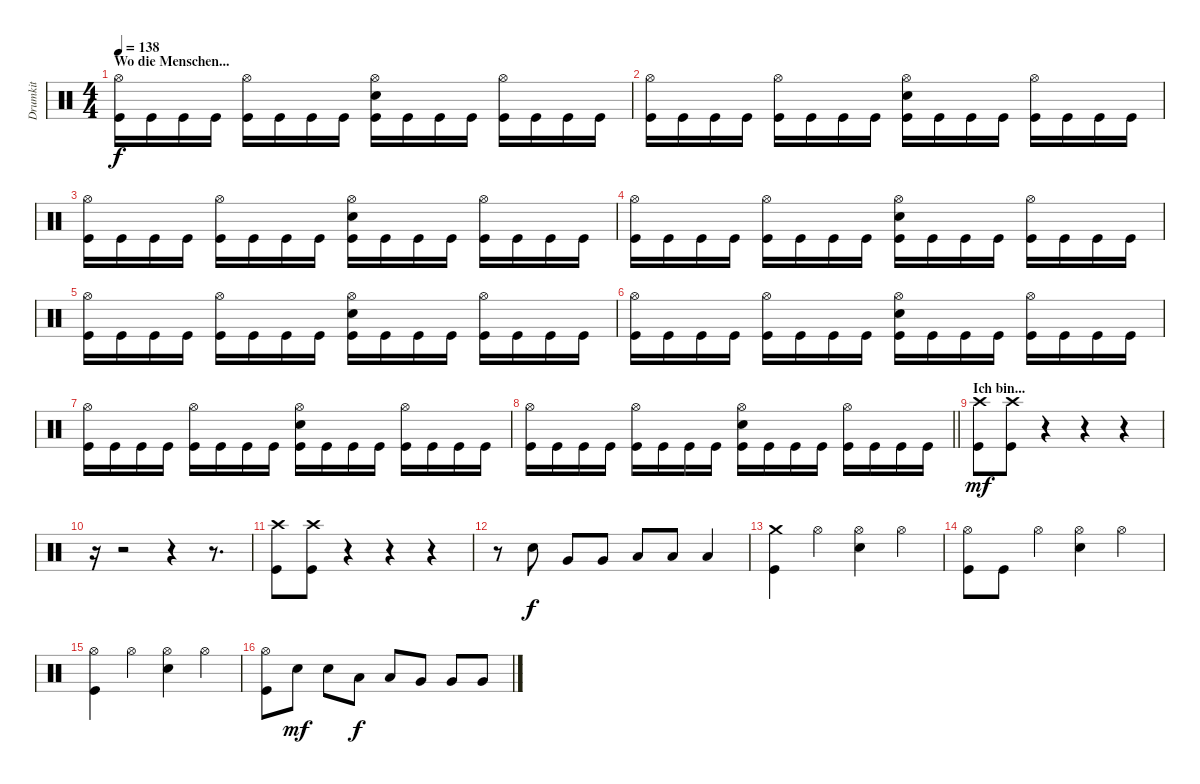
\track ("Drumkit" "Drumkit") {instrument percussion}
\staff {score}
\articulation defaults
\ts (4 4)
\section ("" "Wo die Menschen...")
\tempo 138
\clef neutral
\ks c
("Hi-Hat (open)" "Kick (hit)").16{dy f} "Kick (hit)".16 "Kick (hit)".16 "Kick (hit)".16 ("Hi-Hat (open)" "Kick (hit)").16 "Kick (hit)".16 "Kick (hit)".16 "Kick (hit)".16 ("Hi-Hat (open)" "Snare (hit) 2" "Kick (hit)").16 "Kick (hit)".16 "Kick (hit)".16 "Kick (hit)".16 ("Hi-Hat (open)" "Kick (hit)").16 "Kick (hit)".16 "Kick (hit)".16 "Kick (hit)".16 |
("Hi-Hat (open)" "Kick (hit)").16 "Kick (hit)".16 "Kick (hit)".16 "Kick (hit)".16 ("Hi-Hat (open)" "Kick (hit)").16 "Kick (hit)".16 "Kick (hit)".16 "Kick (hit)".16 ("Hi-Hat (open)" "Snare (hit) 2" "Kick (hit)").16 "Kick (hit)".16 "Kick (hit)".16 "Kick (hit)".16 ("Hi-Hat (open)" "Kick (hit)").16 "Kick (hit)".16 "Kick (hit)".16 "Kick (hit)".16 |
("Hi-Hat (open)" "Kick (hit)").16 "Kick (hit)".16 "Kick (hit)".16 "Kick (hit)".16 ("Hi-Hat (open)" "Kick (hit)").16 "Kick (hit)".16 "Kick (hit)".16 "Kick (hit)".16 ("Hi-Hat (open)" "Snare (hit) 2" "Kick (hit)").16 "Kick (hit)".16 "Kick (hit)".16 "Kick (hit)".16 ("Hi-Hat (open)" "Kick (hit)").16 "Kick (hit)".16 "Kick (hit)".16 "Kick (hit)".16 |
("Hi-Hat (open)" "Kick (hit)").16 "Kick (hit)".16 "Kick (hit)".16 "Kick (hit)".16 ("Hi-Hat (open)" "Kick (hit)").16 "Kick (hit)".16 "Kick (hit)".16 "Kick (hit)".16 ("Hi-Hat (open)" "Snare (hit) 2" "Kick (hit)").16 "Kick (hit)".16 "Kick (hit)".16 "Kick (hit)".16 ("Hi-Hat (open)" "Kick (hit)").16 "Kick (hit)".16 "Kick (hit)".16 "Kick (hit)".16 |
("Hi-Hat (open)" "Kick (hit)").16 "Kick (hit)".16 "Kick (hit)".16 "Kick (hit)".16 ("Hi-Hat (open)" "Kick (hit)").16 "Kick (hit)".16 "Kick (hit)".16 "Kick (hit)".16 ("Hi-Hat (open)" "Snare (hit) 2" "Kick (hit)").16 "Kick (hit)".16 "Kick (hit)".16 "Kick (hit)".16 ("Hi-Hat (open)" "Kick (hit)").16 "Kick (hit)".16 "Kick (hit)".16 "Kick (hit)".16 |
("Hi-Hat (open)" "Kick (hit)").16 "Kick (hit)".16 "Kick (hit)".16 "Kick (hit)".16 ("Hi-Hat (open)" "Kick (hit)").16 "Kick (hit)".16 "Kick (hit)".16 "Kick (hit)".16 ("Hi-Hat (open)" "Snare (hit) 2" "Kick (hit)").16 "Kick (hit)".16 "Kick (hit)".16 "Kick (hit)".16 ("Hi-Hat (open)" "Kick (hit)").16 "Kick (hit)".16 "Kick (hit)".16 "Kick (hit)".16 |
("Hi-Hat (open)" "Kick (hit)").16 "Kick (hit)".16 "Kick (hit)".16 "Kick (hit)".16 ("Hi-Hat (open)" "Kick (hit)").16 "Kick (hit)".16 "Kick (hit)".16 "Kick (hit)".16 ("Hi-Hat (open)" "Snare (hit) 2" "Kick (hit)").16 "Kick (hit)".16 "Kick (hit)".16 "Kick (hit)".16 ("Hi-Hat (open)" "Kick (hit)").16 "Kick (hit)".16 "Kick (hit)".16 "Kick (hit)".16 |
\barLineRight lightlight
("Hi-Hat (open)" "Kick (hit)").16 "Kick (hit)".16 "Kick (hit)".16 "Kick (hit)".16 ("Hi-Hat (open)" "Kick (hit)").16 "Kick (hit)".16 "Kick (hit)".16 "Kick (hit)".16 ("Hi-Hat (open)" "Snare (hit) 2" "Kick (hit)").16 "Kick (hit)".16 "Kick (hit)".16 "Kick (hit)".16 ("Hi-Hat (open)" "Kick (hit)").16 "Kick (hit)".16 "Kick (hit)".16 "Kick (hit)".16 |
\section ("" "Ich bin...")
("Crash high (hit)" "Kick (hit)").8{dy mf} ("Crash high (hit)" "Kick (hit)").8 r.4 r.4 r.4 |
r.16 r.2 r.4 r.8{d} |
("Crash high (hit)" "Kick (hit)").8 ("Crash high (hit)" "Kick (hit)").8 r.4 r.4 r.4 |
r.8 "Snare (hit) 2".8{dy f} "Very Low Tom (hit)".8 "Very Low Tom (hit)".8 "Low Tom (hit)".8 "Low Tom (hit)".8 "Low Floor Tom (hit)".4 |
("Crash medium (hit)" "Kick (hit)").4 "Hi-Hat (open)".4 ("Hi-Hat (open)" "Snare (hit) 2").4 "Hi-Hat (open)".4 |
("Hi-Hat (open)" "Kick (hit)").8 "Kick (hit)".8 "Hi-Hat (open)".4 ("Hi-Hat (open)" "Snare (hit) 2").4 "Hi-Hat (open)".4 |
("Hi-Hat (open)" "Kick (hit)").4 "Hi-Hat (open)".4 ("Hi-Hat (open)" "Snare (hit) 2").4 "Hi-Hat (open)".4 |
("Hi-Hat (open)" "Kick (hit)").8 "Snare (hit) 2".8{dy mf} "Snare (hit) 2".8 "Low Tom (hit)".8{dy f} "Low Tom (hit)".8 "Very Low Tom (hit)".8 "Very Low Tom (hit)".8 "Very Low Tom (hit)".8
